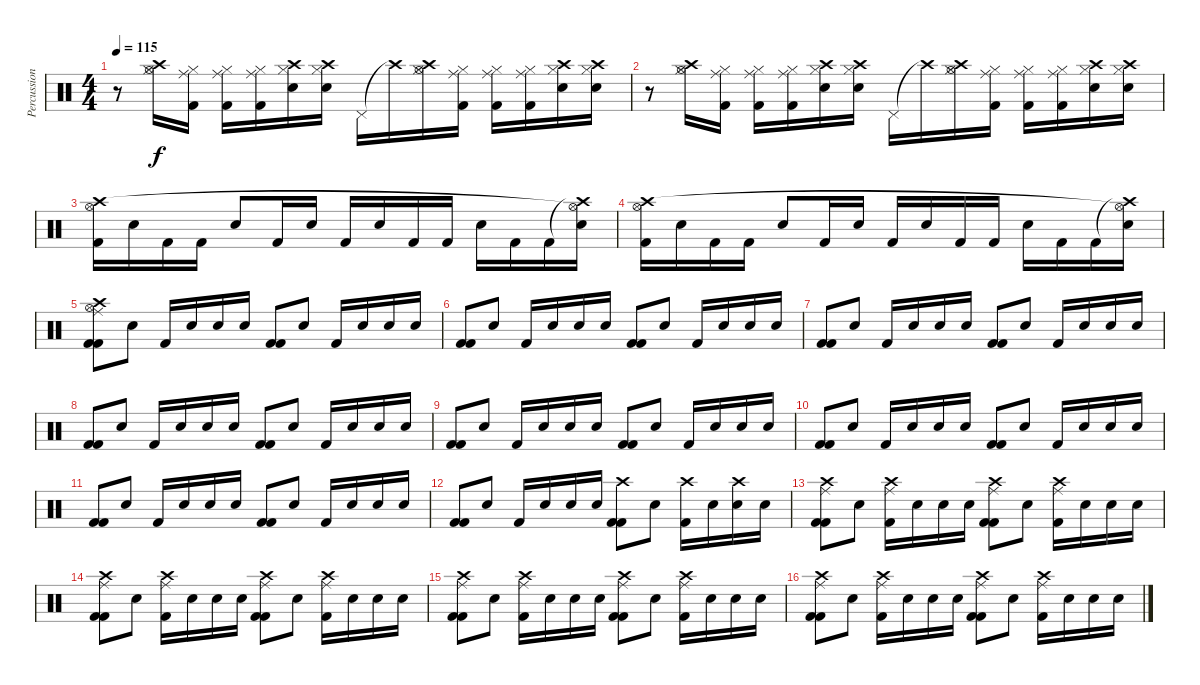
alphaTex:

\track ("Percussion" "Percussion") {instrument percussion}
\staff {score}
\articulation defaults
\ts (4 4)
\tempo 115
\clef neutral
\ks c
r.8{dy f} ("Hi-Hat (closed)" "Hi-Hat (open)" "Crash high (hit)").16 ("Ride (middle)" "Hi-Hat (closed)" "Kick (hit) 2").16 ("Ride (middle)" "Hi-Hat (closed)" "Kick (hit) 2").16 ("Ride (middle)" "Hi-Hat (closed)" "Kick (hit) 2").16 ("Crash high (hit)" "Hi-Hat (closed)" "Snare (hit) 2").16 ("Crash high (hit)" "Hi-Hat (closed)" "Snare (hit) 2").16 "Pedal Hi-Hat (hit)".16 "Crash high (hit)"{t}.16 ("Hi-Hat (closed)" "Hi-Hat (open)" "Crash high (hit)").16 ("Ride (middle)" "Hi-Hat (closed)" "Kick (hit) 2").16 ("Ride (middle)" "Hi-Hat (closed)" "Kick (hit) 2").16 ("Ride (middle)" "Hi-Hat (closed)" "Kick (hit) 2").16 ("Hi-Hat (closed)" "Crash high (hit)" "Snare (hit) 2").16 ("Hi-Hat (closed)" "Crash high (hit)" "Snare (hit) 2").16 |
r.8 ("Hi-Hat (closed)" "Hi-Hat (open)" "Crash high (hit)").16 ("Ride (middle)" "Hi-Hat (closed)" "Kick (hit) 2").16 ("Ride (middle)" "Hi-Hat (closed)" "Kick (hit) 2").16 ("Ride (middle)" "Hi-Hat (closed)" "Kick (hit) 2").16 ("Crash high (hit)" "Hi-Hat (closed)" "Snare (hit) 2").16 ("Crash high (hit)" "Hi-Hat (closed)" "Snare (hit) 2").16 "Pedal Hi-Hat (hit)".16 "Crash high (hit)"{t}.16 ("Hi-Hat (closed)" "Hi-Hat (open)" "Crash high (hit)").16 ("Ride (middle)" "Hi-Hat (closed)" "Kick (hit) 2").16 ("Ride (middle)" "Hi-Hat (closed)" "Kick (hit) 2").16 ("Ride (middle)" "Hi-Hat (closed)" "Kick (hit) 2").16 ("Hi-Hat (closed)" "Crash high (hit)" "Snare (hit) 2").16 ("Hi-Hat (closed)" "Crash high (hit)" "Snare (hit) 2").16 |
("Hi-Hat (open)" "Crash high (hit)" "Kick (hit) 2").16 "Snare (hit) 2".16 "Kick (hit) 2".16 "Kick (hit) 2".16 "Snare (hit) 2".8 "Kick (hit) 2".16 "Snare (hit) 2".16 "Kick (hit) 2".16 "Snare (hit) 2".16 "Kick (hit) 2".16 "Kick (hit) 2".16 "Snare (hit) 2".16 "Kick (hit) 2".16 "Kick (hit) 2".16 ("Crash high (hit)"{t} "Hi-Hat (open)"{t} "Snare (hit) 2").16 |
("Hi-Hat (open)" "Crash high (hit)" "Kick (hit) 2").16 "Snare (hit) 2".16 "Kick (hit) 2".16 "Kick (hit) 2".16 "Snare (hit) 2".8 "Kick (hit) 2".16 "Snare (hit) 2".16 "Kick (hit) 2".16 "Snare (hit) 2".16 "Kick (hit) 2".16 "Kick (hit) 2".16 "Snare (hit) 2".16 "Kick (hit) 2".16 "Kick (hit) 2".16 ("Crash high (hit)"{t} "Hi-Hat (open)"{t} "Snare (hit) 2").16 |
("Ride (middle)" "Crash high (hit)" "Hi-Hat (open)" "Kick (hit) 2" "Kick (hit) 2").8 "Snare (hit) 2".8 "Kick (hit) 2".16 "Snare (hit) 2".16 "Snare (hit) 2".16 "Snare (hit) 2".16 ("Kick (hit) 2" "Kick (hit) 2").8 "Snare (hit) 2".8 "Kick (hit) 2".16 "Snare (hit) 2".16 "Snare (hit) 2".16 "Snare (hit) 2".16 |
("Kick (hit) 2" "Kick (hit) 2").8 "Snare (hit) 2".8 "Kick (hit) 2".16 "Snare (hit) 2".16 "Snare (hit) 2".16 "Snare (hit) 2".16 ("Kick (hit) 2" "Kick (hit) 2").8 "Snare (hit) 2".8 "Kick (hit) 2".16 "Snare (hit) 2".16 "Snare (hit) 2".16 "Snare (hit) 2".16 |
("Kick (hit) 2" "Kick (hit) 2").8 "Snare (hit) 2".8 "Kick (hit) 2".16 "Snare (hit) 2".16 "Snare (hit) 2".16 "Snare (hit) 2".16 ("Kick (hit) 2" "Kick (hit) 2").8 "Snare (hit) 2".8 "Kick (hit) 2".16 "Snare (hit) 2".16 "Snare (hit) 2".16 "Snare (hit) 2".16 |
("Kick (hit) 2" "Kick (hit) 2").8 "Snare (hit) 2".8 "Kick (hit) 2".16 "Snare (hit) 2".16 "Snare (hit) 2".16 "Snare (hit) 2".16 ("Kick (hit) 2" "Kick (hit) 2").8 "Snare (hit) 2".8 "Kick (hit) 2".16 "Snare (hit) 2".16 "Snare (hit) 2".16 "Snare (hit) 2".16 |
("Kick (hit) 2" "Kick (hit) 2").8 "Snare (hit) 2".8 "Kick (hit) 2".16 "Snare (hit) 2".16 "Snare (hit) 2".16 "Snare (hit) 2".16 ("Kick (hit) 2" "Kick (hit) 2").8 "Snare (hit) 2".8 "Kick (hit) 2".16 "Snare (hit) 2".16 "Snare (hit) 2".16 "Snare (hit) 2".16 |
("Kick (hit) 2" "Kick (hit) 2").8 "Snare (hit) 2".8 "Kick (hit) 2".16 "Snare (hit) 2".16 "Snare (hit) 2".16 "Snare (hit) 2".16 ("Kick (hit) 2" "Kick (hit) 2").8 "Snare (hit) 2".8 "Kick (hit) 2".16 "Snare (hit) 2".16 "Snare (hit) 2".16 "Snare (hit) 2".16 |
("Kick (hit) 2" "Kick (hit) 2").8 "Snare (hit) 2".8 "Kick (hit) 2".16 "Snare (hit) 2".16 "Snare (hit) 2".16 "Snare (hit) 2".16 ("Kick (hit) 2" "Kick (hit) 2").8 "Snare (hit) 2".8 "Kick (hit) 2".16 "Snare (hit) 2".16 "Snare (hit) 2".16 "Snare (hit) 2".16 |
("Kick (hit) 2" "Kick (hit) 2").8 "Snare (hit) 2".8 "Kick (hit) 2".16 "Snare (hit) 2".16 "Snare (hit) 2".16 "Snare (hit) 2".16 ("Crash high (hit)" "Kick (hit) 2" "Kick (hit) 2").8 "Snare (hit) 2".8 ("Crash high (hit)" "Kick (hit) 2").16 "Snare (hit) 2".16 ("Crash high (hit)" "Snare (hit) 2").16 "Snare (hit) 2".16 |
("Crash high (hit)" "Ride (middle)" "Kick (hit) 2" "Kick (hit) 2").8 "Snare (hit) 2".8 ("Crash high (hit)" "Ride (middle)" "Kick (hit) 2").16 "Snare (hit) 2".16 "Snare (hit) 2".16 "Snare (hit) 2".16 ("Crash high (hit)" "Ride (middle)" "Kick (hit) 2" "Kick (hit) 2").8 "Snare (hit) 2".8 ("Crash high (hit)" "Ride (middle)" "Kick (hit) 2").16 "Snare (hit) 2".16 "Snare (hit) 2".16 "Snare (hit) 2".16 |
("Crash high (hit)" "Ride (middle)" "Kick (hit) 2" "Kick (hit) 2").8 "Snare (hit) 2".8 ("Crash high (hit)" "Ride (middle)" "Kick (hit) 2").16 "Snare (hit) 2".16 "Snare (hit) 2".16 "Snare (hit) 2".16 ("Crash high (hit)" "Ride (middle)" "Kick (hit) 2" "Kick (hit) 2").8 "Snare (hit) 2".8 ("Crash high (hit)" "Ride (middle)" "Kick (hit) 2").16 "Snare (hit) 2".16 "Snare (hit) 2".16 "Snare (hit) 2".16 |
("Crash high (hit)" "Ride (middle)" "Kick (hit) 2" "Kick (hit) 2").8 "Snare (hit) 2".8 ("Crash high (hit)" "Ride (middle)" "Kick (hit) 2").16 "Snare (hit) 2".16 "Snare (hit) 2".16 "Snare (hit) 2".16 ("Crash high (hit)" "Ride (middle)" "Kick (hit) 2" "Kick (hit) 2").8 "Snare (hit) 2".8 ("Crash high (hit)" "Ride (middle)" "Kick (hit) 2").16 "Snare (hit) 2".16 "Snare (hit) 2".16 "Snare (hit) 2".16 |
("Crash high (hit)" "Ride (middle)" "Kick (hit) 2" "Kick (hit) 2").8 "Snare (hit) 2".8 ("Crash high (hit)" "Ride (middle)" "Kick (hit) 2").16 "Snare (hit) 2".16 "Snare (hit) 2".16 "Snare (hit) 2".16 ("Crash high (hit)" "Ride (middle)" "Kick (hit) 2" "Kick (hit) 2").8 "Snare (hit) 2".8 ("Crash high (hit)" "Ride (middle)" "Kick (hit) 2").16 "Snare (hit) 2".16 "Snare (hit) 2".16 "Snare (hit) 2".16
